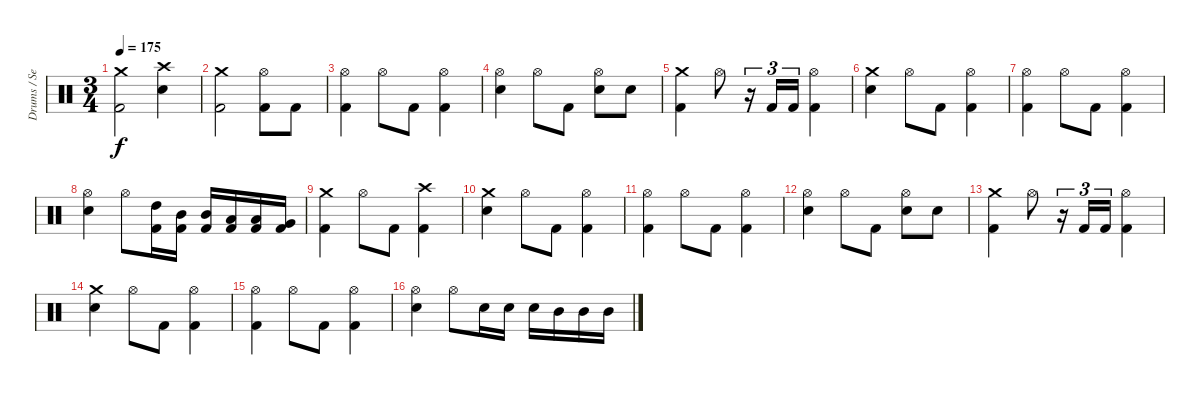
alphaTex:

\track ("Drums / Sean" "Drums / Se") {instrument percussion}
\staff {score}
\articulation defaults
\ts (3 4)
\section ("" "")
\tempo 175
\clef neutral
\ks c
("Crash medium (hit)" "Kick (hit) 2").2{dy f} ("Crash high (hit)" "Electric Snare (hit)").4 |
("Crash medium (hit)" "Kick (hit) 2").2 ("Hi-Hat (open)" "Kick (hit) 2").8 "Kick (hit) 2".8 |
("Hi-Hat (open)" "Kick (hit) 2").4 "Hi-Hat (open)".8 "Kick (hit) 2".8 ("Hi-Hat (open)" "Kick (hit) 2").4 |
("Hi-Hat (open)" "Electric Snare (hit)").4 "Hi-Hat (open)".8 "Kick (hit) 2".8 ("Hi-Hat (open)" "Electric Snare (hit)").8 "Electric Snare (hit)".8 |
("Crash medium (hit)" "Kick (hit) 2").4 "Hi-Hat (open)".8 r.16{tu (3 2)} "Kick (hit) 2".16{tu (3 2)} "Kick (hit) 2".16{tu (3 2)} ("Hi-Hat (open)" "Kick (hit) 2").4 |
("Crash medium (hit)" "Electric Snare (hit)").4 "Hi-Hat (open)".8 "Kick (hit) 2".8 ("Hi-Hat (open)" "Kick (hit) 2").4 |
("Hi-Hat (open)" "Kick (hit) 2").4 "Hi-Hat (open)".8 "Kick (hit) 2".8 ("Hi-Hat (open)" "Kick (hit) 2").4 |
("Hi-Hat (open)" "Electric Snare (hit)").4 "Hi-Hat (open)".8 ("High Tom (hit)" "Kick (hit) 2").16 ("Mid Tom (hit)" "Kick (hit) 2").16 ("Mid Tom (hit)" "Kick (hit) 2").16 ("Low Tom (hit)" "Kick (hit) 2").16 ("Low Tom (hit)" "Kick (hit) 2").16 ("Very Low Tom (hit)" "Kick (hit) 2").16 |
("Crash medium (hit)" "Kick (hit) 2").4 "Hi-Hat (open)".8 "Kick (hit) 2".8 ("Crash high (hit)" "Kick (hit) 2").4 |
("Crash medium (hit)" "Electric Snare (hit)").4 "Hi-Hat (open)".8 "Kick (hit) 2".8 ("Hi-Hat (open)" "Kick (hit) 2").4 |
("Hi-Hat (open)" "Kick (hit) 2").4 "Hi-Hat (open)".8 "Kick (hit) 2".8 ("Hi-Hat (open)" "Kick (hit) 2").4 |
("Hi-Hat (open)" "Electric Snare (hit)").4 "Hi-Hat (open)".8 "Kick (hit) 2".8 ("Hi-Hat (open)" "Electric Snare (hit)").8 "Electric Snare (hit)".8 |
("Crash medium (hit)" "Kick (hit) 2").4 "Hi-Hat (open)".8 r.16{tu (3 2)} "Kick (hit) 2".16{tu (3 2)} "Kick (hit) 2".16{tu (3 2)} ("Hi-Hat (open)" "Kick (hit) 2").4 |
("Crash medium (hit)" "Electric Snare (hit)").4 "Hi-Hat (open)".8 "Kick (hit) 2".8 ("Hi-Hat (open)" "Kick (hit) 2").4 |
("Hi-Hat (open)" "Kick (hit) 2").4 "Hi-Hat (open)".8 "Kick (hit) 2".8 ("Hi-Hat (open)" "Kick (hit) 2").4 |
("Hi-Hat (open)" "Electric Snare (hit)").4 "Hi-Hat (open)".8 "Electric Snare (hit)".16 "Electric Snare (hit)".16 "Electric Snare (hit)".16 "Mid Tom (hit)".16 "Mid Tom (hit)".16 "Mid Tom (hit)".16
